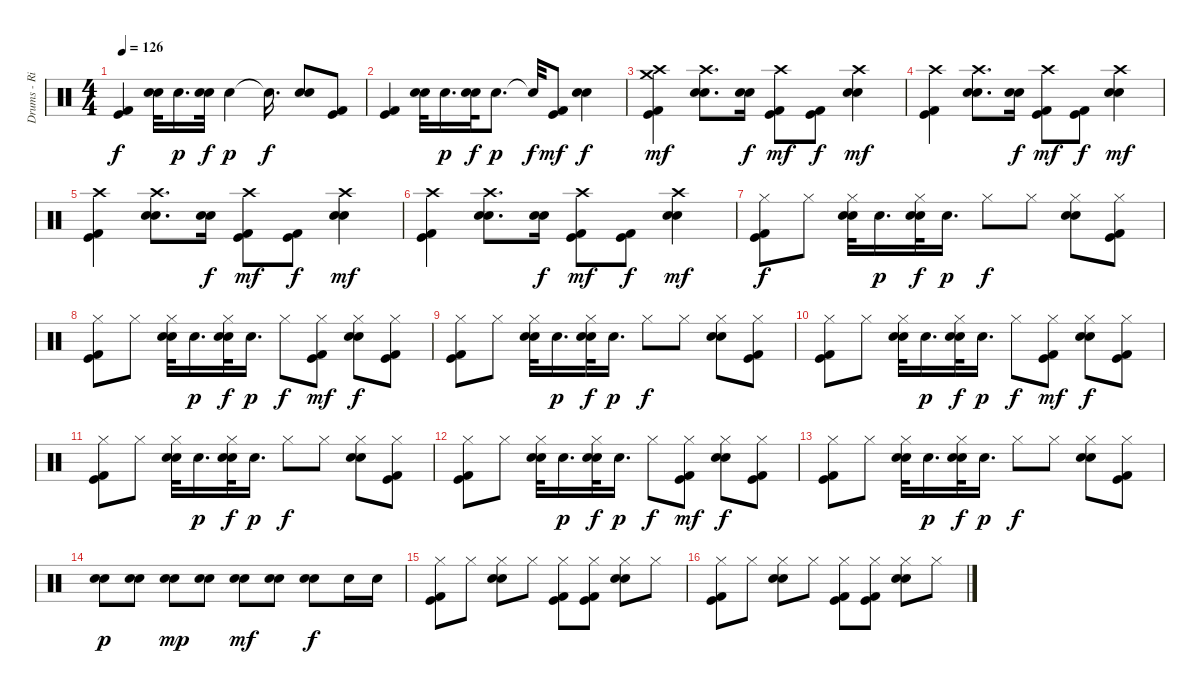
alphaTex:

\track ("Drums - Rian" "Drums - Ri") {instrument percussion}
\staff {score}
\articulation defaults
\ts (4 4)
\tempo 126
\clef neutral
\ks c
("Kick (hit) 2" "Kick (hit)").4{dy f} ("Electric Snare (hit)" "Electric Snare (hit)").32 "Electric Snare (hit)".16{d dy p} ("Electric Snare (hit)" "Electric Snare (hit)").32{dy f} "Electric Snare (hit)".4{dy p} "Snare (hit)"{t}.16{d dy f} ("Electric Snare (hit)" "Electric Snare (hit)").8 ("Kick (hit) 2" "Kick (hit)").8 |
("Kick (hit) 2" "Kick (hit)").4 ("Electric Snare (hit)" "Electric Snare (hit)").32 "Electric Snare (hit)".16{d dy p} ("Electric Snare (hit)" "Electric Snare (hit)").32{dy f} "Electric Snare (hit)".8{d dy p} "Snare (hit)"{t}.32{dy f} ("Kick (hit) 2" "Kick (hit)").8{dy mf} ("Electric Snare (hit)" "Electric Snare (hit)").4{dy f} |
("Kick (hit) 2" "Kick (hit)" "Crash high (hit)" "Crash medium (hit)").4{dy mf} ("Electric Snare (hit)" "Electric Snare (hit)" "Crash high (hit)").8{d} ("Electric Snare (hit)" "Electric Snare (hit)").16{dy f} ("Kick (hit) 2" "Kick (hit)" "Crash high (hit)").8{dy mf} ("Kick (hit) 2" "Kick (hit)").8{dy f} ("Electric Snare (hit)" "Electric Snare (hit)" "Crash high (hit)").4{dy mf} |
("Kick (hit) 2" "Kick (hit)" "Crash high (hit)").4 ("Electric Snare (hit)" "Electric Snare (hit)" "Crash high (hit)").8{d} ("Electric Snare (hit)" "Electric Snare (hit)").16{dy f} ("Kick (hit) 2" "Kick (hit)" "Crash high (hit)").8{dy mf} ("Kick (hit) 2" "Kick (hit)").8{dy f} ("Electric Snare (hit)" "Electric Snare (hit)" "Crash high (hit)").4{dy mf} |
("Kick (hit) 2" "Kick (hit)" "Crash high (hit)").4 ("Electric Snare (hit)" "Electric Snare (hit)" "Crash high (hit)").8{d} ("Electric Snare (hit)" "Electric Snare (hit)").16{dy f} ("Kick (hit) 2" "Kick (hit)" "Crash high (hit)").8{dy mf} ("Kick (hit) 2" "Kick (hit)").8{dy f} ("Electric Snare (hit)" "Electric Snare (hit)" "Crash high (hit)").4{dy mf} |
("Kick (hit) 2" "Kick (hit)" "Crash high (hit)").4 ("Electric Snare (hit)" "Electric Snare (hit)" "Crash high (hit)").8{d} ("Electric Snare (hit)" "Electric Snare (hit)").16{dy f} ("Kick (hit) 2" "Kick (hit)" "Crash high (hit)").8{dy mf} ("Kick (hit) 2" "Kick (hit)").8{dy f} ("Electric Snare (hit)" "Electric Snare (hit)" "Crash high (hit)").4{dy mf} |
("Kick (hit) 2" "Kick (hit)" "Hi-Hat (closed)").8{dy f} "Hi-Hat (closed)".8 ("Electric Snare (hit)" "Electric Snare (hit)" "Hi-Hat (closed)").32 "Electric Snare (hit)".16{d dy p} ("Electric Snare (hit)" "Electric Snare (hit)" "Hi-Hat (closed)").32{dy f} "Electric Snare (hit)".16{d dy p} "Hi-Hat (closed)".8{dy f} "Hi-Hat (closed)".8 ("Electric Snare (hit)" "Electric Snare (hit)" "Hi-Hat (closed)").8 ("Kick (hit) 2" "Kick (hit)" "Hi-Hat (closed)").8 |
("Kick (hit) 2" "Kick (hit)" "Hi-Hat (closed)").8 "Hi-Hat (closed)".8 ("Electric Snare (hit)" "Electric Snare (hit)" "Hi-Hat (closed)").32 "Electric Snare (hit)".16{d dy p} ("Electric Snare (hit)" "Electric Snare (hit)" "Hi-Hat (closed)").32{dy f} "Electric Snare (hit)".16{d dy p} "Hi-Hat (closed)".8{dy f} ("Kick (hit) 2" "Kick (hit)" "Hi-Hat (closed)").8{dy mf} ("Electric Snare (hit)" "Electric Snare (hit)" "Hi-Hat (closed)").8{dy f} ("Kick (hit) 2" "Kick (hit)" "Hi-Hat (closed)").8 |
("Kick (hit) 2" "Kick (hit)" "Hi-Hat (closed)").8 "Hi-Hat (closed)".8 ("Electric Snare (hit)" "Electric Snare (hit)" "Hi-Hat (closed)").32 "Electric Snare (hit)".16{d dy p} ("Electric Snare (hit)" "Electric Snare (hit)" "Hi-Hat (closed)").32{dy f} "Electric Snare (hit)".16{d dy p} "Hi-Hat (closed)".8{dy f} "Hi-Hat (closed)".8 ("Electric Snare (hit)" "Electric Snare (hit)" "Hi-Hat (closed)").8 ("Kick (hit) 2" "Kick (hit)" "Hi-Hat (closed)").8 |
("Kick (hit) 2" "Kick (hit)" "Hi-Hat (closed)").8 "Hi-Hat (closed)".8 ("Electric Snare (hit)" "Electric Snare (hit)" "Hi-Hat (closed)").32 "Electric Snare (hit)".16{d dy p} ("Electric Snare (hit)" "Electric Snare (hit)" "Hi-Hat (closed)").32{dy f} "Electric Snare (hit)".16{d dy p} "Hi-Hat (closed)".8{dy f} ("Kick (hit) 2" "Kick (hit)" "Hi-Hat (closed)").8{dy mf} ("Electric Snare (hit)" "Electric Snare (hit)" "Hi-Hat (closed)").8{dy f} ("Kick (hit) 2" "Kick (hit)" "Hi-Hat (closed)").8 |
("Kick (hit) 2" "Kick (hit)" "Hi-Hat (closed)").8 "Hi-Hat (closed)".8 ("Electric Snare (hit)" "Electric Snare (hit)" "Hi-Hat (closed)").32 "Electric Snare (hit)".16{d dy p} ("Electric Snare (hit)" "Electric Snare (hit)" "Hi-Hat (closed)").32{dy f} "Electric Snare (hit)".16{d dy p} "Hi-Hat (closed)".8{dy f} "Hi-Hat (closed)".8 ("Electric Snare (hit)" "Electric Snare (hit)" "Hi-Hat (closed)").8 ("Kick (hit) 2" "Kick (hit)" "Hi-Hat (closed)").8 |
("Kick (hit) 2" "Kick (hit)" "Hi-Hat (closed)").8 "Hi-Hat (closed)".8 ("Electric Snare (hit)" "Electric Snare (hit)" "Hi-Hat (closed)").32 "Electric Snare (hit)".16{d dy p} ("Electric Snare (hit)" "Electric Snare (hit)" "Hi-Hat (closed)").32{dy f} "Electric Snare (hit)".16{d dy p} "Hi-Hat (closed)".8{dy f} ("Kick (hit) 2" "Kick (hit)" "Hi-Hat (closed)").8{dy mf} ("Electric Snare (hit)" "Electric Snare (hit)" "Hi-Hat (closed)").8{dy f} ("Kick (hit) 2" "Kick (hit)" "Hi-Hat (closed)").8 |
("Kick (hit) 2" "Kick (hit)" "Hi-Hat (closed)").8 "Hi-Hat (closed)".8 ("Electric Snare (hit)" "Electric Snare (hit)" "Hi-Hat (closed)").32 "Electric Snare (hit)".16{d dy p} ("Electric Snare (hit)" "Electric Snare (hit)" "Hi-Hat (closed)").32{dy f} "Electric Snare (hit)".16{d dy p} "Hi-Hat (closed)".8{dy f} "Hi-Hat (closed)".8 ("Electric Snare (hit)" "Electric Snare (hit)" "Hi-Hat (closed)").8 ("Kick (hit) 2" "Kick (hit)" "Hi-Hat (closed)").8 |
("Electric Snare (hit)" "Electric Snare (hit)").8{dy p} ("Electric Snare (hit)" "Electric Snare (hit)").8 ("Electric Snare (hit)" "Electric Snare (hit)").8{dy mp} ("Electric Snare (hit)" "Electric Snare (hit)").8 ("Electric Snare (hit)" "Electric Snare (hit)").8{dy mf} ("Electric Snare (hit)" "Electric Snare (hit)").8 ("Electric Snare (hit)" "Electric Snare (hit)").8{dy f} "Electric Snare (hit)".16 "Electric Snare (hit)".16 |
("Kick (hit) 2" "Kick (hit)" "Hi-Hat (closed)").8 "Hi-Hat (closed)".8 ("Electric Snare (hit)" "Electric Snare (hit)" "Hi-Hat (closed)").8 "Hi-Hat (closed)".8 ("Kick (hit) 2" "Kick (hit)" "Hi-Hat (closed)").8 ("Kick (hit) 2" "Kick (hit)" "Hi-Hat (closed)").8 ("Electric Snare (hit)" "Electric Snare (hit)" "Hi-Hat (closed)").8 "Hi-Hat (closed)".8 |
("Kick (hit) 2" "Kick (hit)" "Hi-Hat (closed)").8 "Hi-Hat (closed)".8 ("Electric Snare (hit)" "Electric Snare (hit)" "Hi-Hat (closed)").8 "Hi-Hat (closed)".8 ("Kick (hit) 2" "Kick (hit)" "Hi-Hat (closed)").8 ("Kick (hit) 2" "Kick (hit)" "Hi-Hat (closed)").8 ("Electric Snare (hit)" "Electric Snare (hit)" "Hi-Hat (closed)").8 "Hi-Hat (closed)".8
